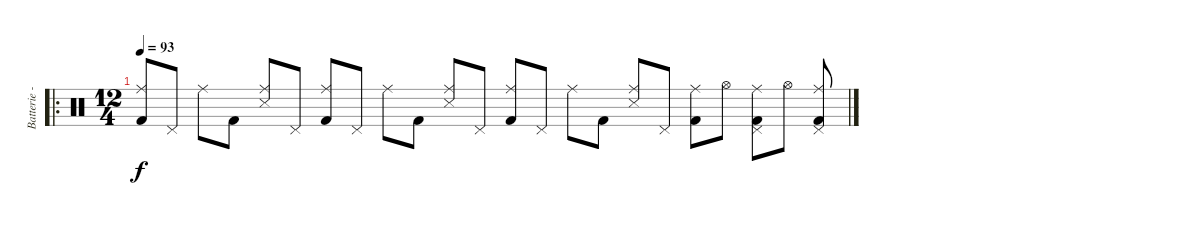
\track ("Batterie - " "Batterie -") {instrument percussion}
\staff {score}
\articulation defaults
\ro
\ts (12 4)
\tempo 93
\clef neutral
\ks c
("Kick (hit) 2" "Ride (middle)").8{dy f} "Pedal Hi-Hat (hit)".8 "Ride (middle)".8 "Kick (hit) 2".8 ("Snare (side stick) 3" "Ride (middle)").8 "Pedal Hi-Hat (hit)".8 ("Kick (hit) 2" "Ride (middle)").8 "Pedal Hi-Hat (hit)".8 "Ride (middle)".8 "Kick (hit) 2".8 ("Snare (side stick) 3" "Ride (middle)").8 "Pedal Hi-Hat (hit)".8 ("Kick (hit) 2" "Ride (middle)").8 "Pedal Hi-Hat (hit)".8 "Ride (middle)".8 "Kick (hit) 2".8 ("Snare (side stick) 3" "Ride (middle)").8 "Pedal Hi-Hat (hit)".8 ("Kick (hit) 2" "Ride (middle)").8 "Hi-Hat (open)".8 ("Kick (hit) 2" "Pedal Hi-Hat (hit)" "Ride (middle)").8 "Hi-Hat (open)".8 ("Kick (hit) 2" "Pedal Hi-Hat (hit)" "Ride (middle)").8
